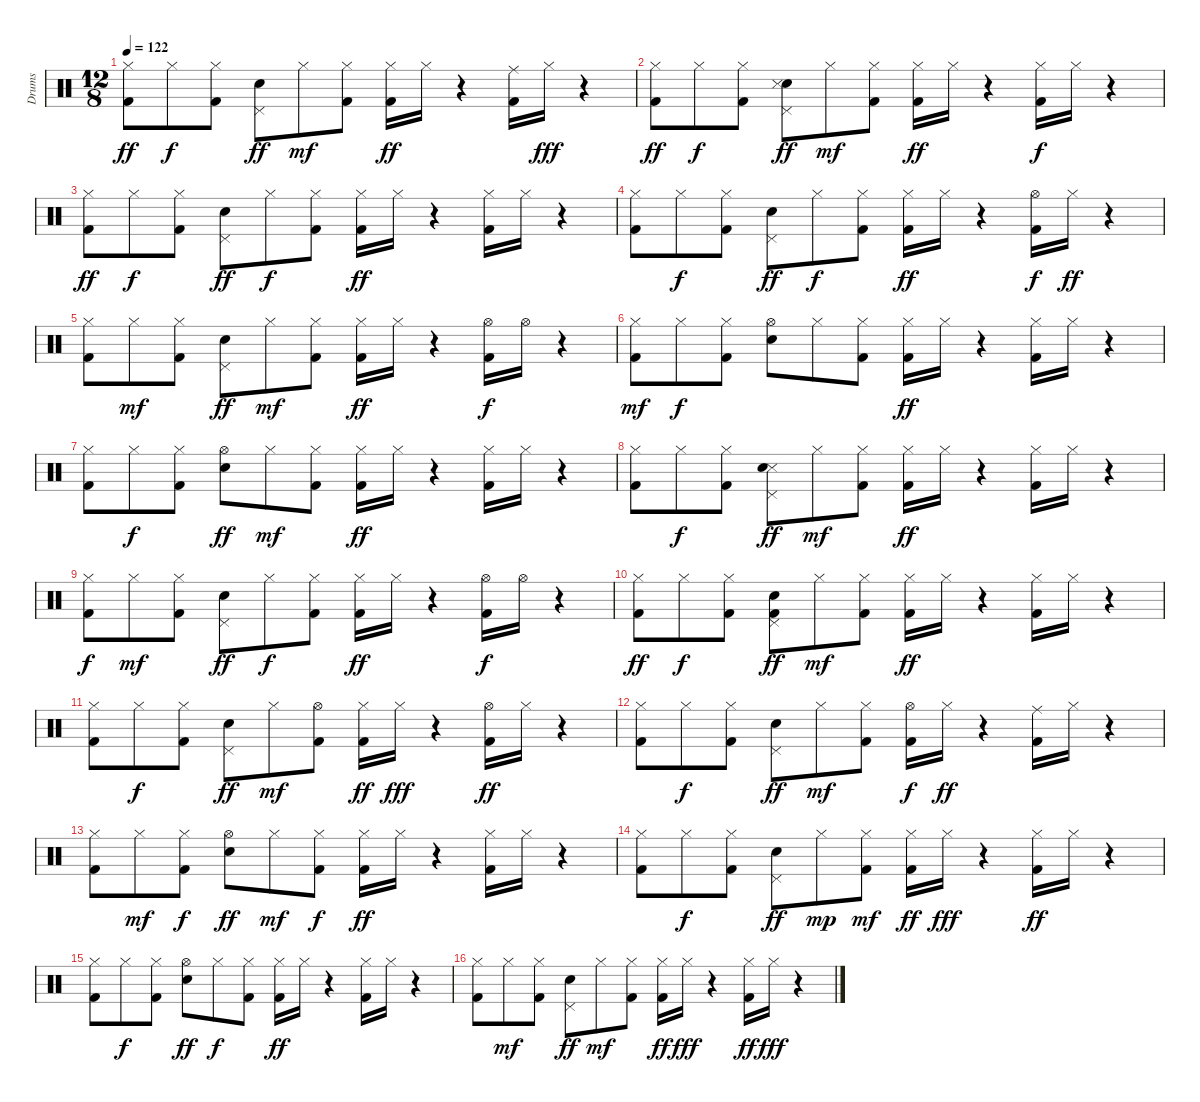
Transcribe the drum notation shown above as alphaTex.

\track ("Drums" "Drums") {instrument percussion}
\staff {score}
\articulation defaults
\ts (12 8)
\tempo 122
\clef neutral
\ks c
("Hi-Hat (closed)" "Kick (hit) 2").8{dy ff} "Hi-Hat (closed)".8{dy f} ("Hi-Hat (closed)" "Kick (hit) 2").8 ("Pedal Hi-Hat (hit)" "Snare (hit) 2").8{dy ff} "Hi-Hat (closed)".8{dy mf} ("Hi-Hat (closed)" "Kick (hit) 2").8 ("Hi-Hat (closed)" "Kick (hit) 2").16{dy ff} "Hi-Hat (closed)".16 r.4 ("Ride (middle)" "Kick (hit) 2").16 "Hi-Hat (closed)".16{dy fff} r.4 |
("Hi-Hat (closed)" "Kick (hit) 2").8{dy ff} "Hi-Hat (closed)".8{dy f} ("Hi-Hat (closed)" "Kick (hit) 2").8 ("Pedal Hi-Hat (hit)" "Snare (hit) 2" "Snare (side stick) 3").8{dy ff} "Hi-Hat (closed)".8{dy mf} ("Hi-Hat (closed)" "Kick (hit) 2").8 ("Hi-Hat (closed)" "Kick (hit) 2").16{dy ff} "Hi-Hat (closed)".16 r.4 ("Hi-Hat (closed)" "Kick (hit) 2").16{dy f} "Hi-Hat (closed)".16 r.4 |
("Hi-Hat (closed)" "Kick (hit) 2").8{dy ff} "Hi-Hat (closed)".8{dy f} ("Hi-Hat (closed)" "Kick (hit) 2").8 ("Pedal Hi-Hat (hit)" "Snare (hit) 2").8{dy ff} "Hi-Hat (closed)".8{dy f} ("Hi-Hat (closed)" "Kick (hit) 2").8 ("Hi-Hat (closed)" "Kick (hit) 2").16{dy ff} "Hi-Hat (closed)".16 r.4 ("Hi-Hat (closed)" "Kick (hit) 2").16 "Hi-Hat (closed)".16 r.4 |
("Hi-Hat (closed)" "Kick (hit) 2").8 "Hi-Hat (closed)".8{dy f} ("Hi-Hat (closed)" "Kick (hit) 2").8 ("Pedal Hi-Hat (hit)" "Snare (hit) 2").8{dy ff} "Hi-Hat (closed)".8{dy f} ("Hi-Hat (closed)" "Kick (hit) 2").8 ("Hi-Hat (closed)" "Kick (hit) 2").16{dy ff} "Hi-Hat (closed)".16 r.4 ("Hi-Hat (open)" "Kick (hit) 2").16{dy f} "Hi-Hat (closed)".16{dy ff} r.4 |
("Hi-Hat (closed)" "Kick (hit) 2").8 "Hi-Hat (closed)".8{dy mf} ("Hi-Hat (closed)" "Kick (hit) 2").8 ("Pedal Hi-Hat (hit)" "Snare (hit) 2").8{dy ff} "Hi-Hat (closed)".8{dy mf} ("Hi-Hat (closed)" "Kick (hit) 2").8 ("Hi-Hat (closed)" "Kick (hit) 2").16{dy ff} "Hi-Hat (closed)".16 r.4 ("Hi-Hat (open)" "Kick (hit) 2").16{dy f} "Hi-Hat (open)".16 r.4 |
("Hi-Hat (closed)" "Kick (hit) 2").8{dy mf} "Hi-Hat (closed)".8{dy f} ("Hi-Hat (closed)" "Kick (hit) 2").8 ("Hi-Hat (open)" "Snare (hit) 2").8 "Hi-Hat (closed)".8 ("Hi-Hat (closed)" "Kick (hit) 2").8 ("Hi-Hat (closed)" "Kick (hit) 2").16{dy ff} "Hi-Hat (closed)".16 r.4 ("Hi-Hat (closed)" "Kick (hit) 2").16 "Hi-Hat (closed)".16 r.4 |
("Hi-Hat (closed)" "Kick (hit) 2").8 "Hi-Hat (closed)".8{dy f} ("Hi-Hat (closed)" "Kick (hit) 2").8 ("Hi-Hat (open)" "Snare (hit) 2").8{dy ff} "Hi-Hat (closed)".8{dy mf} ("Hi-Hat (closed)" "Kick (hit) 2").8 ("Hi-Hat (closed)" "Kick (hit) 2").16{dy ff} "Hi-Hat (closed)".16 r.4 ("Hi-Hat (closed)" "Kick (hit) 2").16 "Hi-Hat (closed)".16 r.4 |
("Hi-Hat (closed)" "Kick (hit) 2").8 "Hi-Hat (closed)".8{dy f} ("Hi-Hat (closed)" "Kick (hit) 2").8 ("Snare (side stick) 3" "Pedal Hi-Hat (hit)" "Snare (hit) 2").8{dy ff} "Hi-Hat (closed)".8{dy mf} ("Hi-Hat (closed)" "Kick (hit) 2").8 ("Hi-Hat (closed)" "Kick (hit) 2").16{dy ff} "Hi-Hat (closed)".16 r.4 ("Hi-Hat (closed)" "Kick (hit) 2").16 "Hi-Hat (closed)".16 r.4 |
("Hi-Hat (closed)" "Kick (hit) 2").8{dy f} "Hi-Hat (closed)".8{dy mf} ("Hi-Hat (closed)" "Kick (hit) 2").8 ("Pedal Hi-Hat (hit)" "Snare (hit) 2").8{dy ff} "Hi-Hat (closed)".8{dy f} ("Hi-Hat (closed)" "Kick (hit) 2").8 ("Hi-Hat (closed)" "Kick (hit) 2").16{dy ff} "Hi-Hat (closed)".16 r.4 ("Hi-Hat (open)" "Kick (hit) 2").16{dy f} "Hi-Hat (open)".16 r.4 |
("Hi-Hat (closed)" "Kick (hit) 2").8{dy ff} "Hi-Hat (closed)".8{dy f} ("Hi-Hat (closed)" "Kick (hit) 2").8 ("Pedal Hi-Hat (hit)" "Snare (hit) 2" "Kick (hit) 2").8{dy ff} "Hi-Hat (closed)".8{dy mf} ("Hi-Hat (closed)" "Kick (hit) 2").8 ("Hi-Hat (closed)" "Kick (hit) 2").16{dy ff} "Hi-Hat (closed)".16 r.4 ("Hi-Hat (closed)" "Kick (hit) 2").16 "Hi-Hat (closed)".16 r.4 |
("Hi-Hat (closed)" "Kick (hit) 2").8 "Hi-Hat (closed)".8{dy f} ("Hi-Hat (closed)" "Kick (hit) 2").8 ("Pedal Hi-Hat (hit)" "Snare (hit) 2").8{dy ff} "Hi-Hat (closed)".8{dy mf} ("Hi-Hat (open)" "Kick (hit) 2").8 ("Hi-Hat (closed)" "Kick (hit) 2").16{dy ff} "Hi-Hat (closed)".16{dy fff} r.4 ("Hi-Hat (open)" "Kick (hit) 2").16{dy ff} "Hi-Hat (closed)".16 r.4 |
("Hi-Hat (closed)" "Kick (hit) 2").8 "Hi-Hat (closed)".8{dy f} ("Hi-Hat (closed)" "Kick (hit) 2").8 ("Pedal Hi-Hat (hit)" "Snare (hit) 2").8{dy ff} "Hi-Hat (closed)".8{dy mf} ("Hi-Hat (closed)" "Kick (hit) 2").8 ("Hi-Hat (open)" "Kick (hit) 2").16{dy f} "Hi-Hat (closed)".16{dy ff} r.4 ("Ride (middle)" "Kick (hit) 2").16 "Hi-Hat (closed)".16 r.4 |
("Hi-Hat (closed)" "Kick (hit) 2").8 "Hi-Hat (closed)".8{dy mf} ("Hi-Hat (closed)" "Kick (hit) 2").8{dy f} ("Hi-Hat (open)" "Snare (hit) 2").8{dy ff} "Hi-Hat (closed)".8{dy mf} ("Hi-Hat (closed)" "Kick (hit) 2").8{dy f} ("Hi-Hat (closed)" "Kick (hit) 2").16{dy ff} "Hi-Hat (closed)".16 r.4 ("Hi-Hat (closed)" "Kick (hit) 2").16 "Hi-Hat (closed)".16 r.4 |
("Hi-Hat (closed)" "Kick (hit) 2").8 "Hi-Hat (closed)".8{dy f} ("Hi-Hat (closed)" "Kick (hit) 2").8 ("Pedal Hi-Hat (hit)" "Snare (hit) 2").8{dy ff} "Hi-Hat (closed)".8{dy mp} ("Hi-Hat (closed)" "Kick (hit) 2").8{dy mf} ("Hi-Hat (closed)" "Kick (hit) 2").16{dy ff} "Hi-Hat (closed)".16{dy fff} r.4 ("Hi-Hat (closed)" "Kick (hit) 2").16{dy ff} "Hi-Hat (closed)".16 r.4 |
("Hi-Hat (closed)" "Kick (hit) 2").8 "Hi-Hat (closed)".8{dy f} ("Hi-Hat (closed)" "Kick (hit) 2").8 ("Hi-Hat (open)" "Snare (hit) 2").8{dy ff} "Hi-Hat (closed)".8{dy f} ("Hi-Hat (closed)" "Kick (hit) 2").8 ("Hi-Hat (closed)" "Kick (hit) 2").16{dy ff} "Hi-Hat (closed)".16 r.4 ("Hi-Hat (closed)" "Kick (hit) 2").16 "Hi-Hat (closed)".16 r.4 |
("Hi-Hat (closed)" "Kick (hit) 2").8 "Hi-Hat (closed)".8{dy mf} ("Hi-Hat (closed)" "Kick (hit) 2").8 ("Pedal Hi-Hat (hit)" "Snare (hit) 2").8{dy ff} "Hi-Hat (closed)".8{dy mf} ("Hi-Hat (closed)" "Kick (hit) 2").8 ("Hi-Hat (closed)" "Kick (hit) 2").16{dy ff} "Hi-Hat (closed)".16{dy fff} r.4 ("Hi-Hat (closed)" "Kick (hit) 2").16{dy ff} "Hi-Hat (closed)".16{dy fff} r.4
